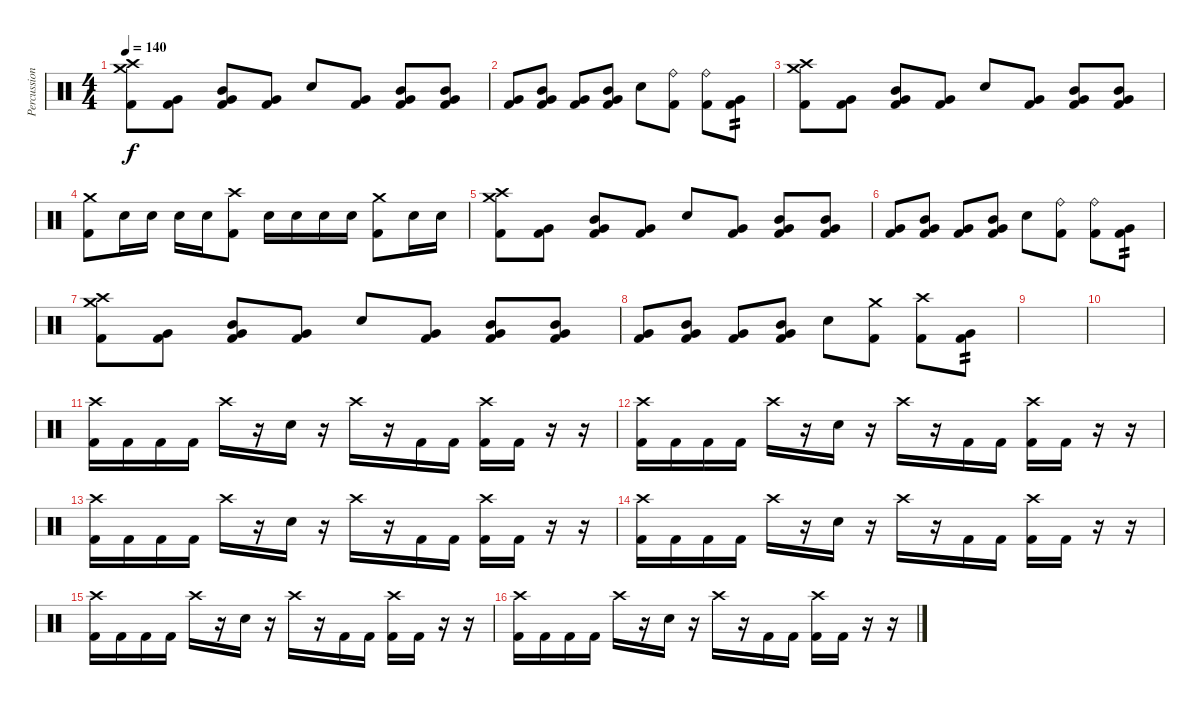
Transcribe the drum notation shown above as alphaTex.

\track ("Percussion" "Percussion") {instrument percussion}
\staff {score}
\articulation defaults
\ts (4 4)
\tempo 140
\clef neutral
\ks c
("Crash high (hit)" "Crash medium (hit)" "Kick (hit) 2").8{dy f} ("Very Low Tom (hit)" "Kick (hit) 2").8 ("Mid Tom (hit)" "Very Low Tom (hit)" "Kick (hit) 2").8 ("Very Low Tom (hit)" "Kick (hit) 2").8 "Electric Snare (hit)".8 ("Very Low Tom (hit)" "Kick (hit) 2").8 ("Mid Tom (hit)" "Very Low Tom (hit)" "Kick (hit) 2").8 ("Mid Tom (hit)" "Very Low Tom (hit)" "Kick (hit) 2").8 |
("Very Low Tom (hit)" "Kick (hit) 2").8 ("Mid Tom (hit)" "Very Low Tom (hit)" "Kick (hit) 2").8 ("Very Low Tom (hit)" "Kick (hit) 2").8 ("Mid Tom (hit)" "Very Low Tom (hit)" "Kick (hit) 2").8 "Electric Snare (hit)".8 ("Ride (bell)" "Kick (hit) 2").8 ("Ride (bell)" "Kick (hit) 2").8 ("Very Low Tom (hit)" "Kick (hit) 2").8{tp 2} |
("Crash high (hit)" "Crash medium (hit)" "Kick (hit) 2").8 ("Very Low Tom (hit)" "Kick (hit) 2").8 ("Mid Tom (hit)" "Very Low Tom (hit)" "Kick (hit) 2").8 ("Very Low Tom (hit)" "Kick (hit) 2").8 "Electric Snare (hit)".8 ("Very Low Tom (hit)" "Kick (hit) 2").8 ("Mid Tom (hit)" "Very Low Tom (hit)" "Kick (hit) 2").8 ("Mid Tom (hit)" "Very Low Tom (hit)" "Kick (hit) 2").8 |
("Crash medium (hit)" "Kick (hit) 2").8 "Electric Snare (hit)".16 "Electric Snare (hit)".16 "Electric Snare (hit)".16 "Electric Snare (hit)".16 ("Crash high (hit)" "Kick (hit) 2").8 "Electric Snare (hit)".16 "Electric Snare (hit)".16 "Electric Snare (hit)".16 "Electric Snare (hit)".16 ("Crash medium (hit)" "Kick (hit) 2").8 "Electric Snare (hit)".16 "Electric Snare (hit)".16 |
("Crash high (hit)" "Crash medium (hit)" "Kick (hit) 2").8 ("Very Low Tom (hit)" "Kick (hit) 2").8 ("Mid Tom (hit)" "Very Low Tom (hit)" "Kick (hit) 2").8 ("Very Low Tom (hit)" "Kick (hit) 2").8 "Electric Snare (hit)".8 ("Very Low Tom (hit)" "Kick (hit) 2").8 ("Mid Tom (hit)" "Very Low Tom (hit)" "Kick (hit) 2").8 ("Mid Tom (hit)" "Very Low Tom (hit)" "Kick (hit) 2").8 |
("Very Low Tom (hit)" "Kick (hit) 2").8 ("Mid Tom (hit)" "Very Low Tom (hit)" "Kick (hit) 2").8 ("Very Low Tom (hit)" "Kick (hit) 2").8 ("Mid Tom (hit)" "Very Low Tom (hit)" "Kick (hit) 2").8 "Electric Snare (hit)".8 ("Ride (bell)" "Kick (hit) 2").8 ("Ride (bell)" "Kick (hit) 2").8 ("Very Low Tom (hit)" "Kick (hit) 2").8{tp 2} |
("Crash high (hit)" "Crash medium (hit)" "Kick (hit) 2").8 ("Very Low Tom (hit)" "Kick (hit) 2").8 ("Mid Tom (hit)" "Very Low Tom (hit)" "Kick (hit) 2").8 ("Very Low Tom (hit)" "Kick (hit) 2").8 "Electric Snare (hit)".8 ("Very Low Tom (hit)" "Kick (hit) 2").8 ("Mid Tom (hit)" "Very Low Tom (hit)" "Kick (hit) 2").8 ("Mid Tom (hit)" "Very Low Tom (hit)" "Kick (hit) 2").8 |
("Very Low Tom (hit)" "Kick (hit) 2").8 ("Mid Tom (hit)" "Very Low Tom (hit)" "Kick (hit) 2").8 ("Very Low Tom (hit)" "Kick (hit) 2").8 ("Mid Tom (hit)" "Very Low Tom (hit)" "Kick (hit) 2").8 "Electric Snare (hit)".8 ("Crash medium (hit)" "Kick (hit) 2").8 ("Crash high (hit)" "Kick (hit) 2").8 ("Very Low Tom (hit)" "Kick (hit) 2").8{tp 2} |
|
|
("Crash high (hit)" "Kick (hit) 2").16 "Kick (hit) 2".16 "Kick (hit) 2".16 "Kick (hit) 2".16 "Crash high (hit)".16 r.16 "Electric Snare (hit)".16 r.16 "Crash high (hit)".16 r.16 "Kick (hit) 2".16 "Kick (hit) 2".16 ("Crash high (hit)" "Kick (hit) 2").16 "Kick (hit) 2".16 r.16 r.16 |
("Crash high (hit)" "Kick (hit) 2").16 "Kick (hit) 2".16 "Kick (hit) 2".16 "Kick (hit) 2".16 "Crash high (hit)".16 r.16 "Electric Snare (hit)".16 r.16 "Crash high (hit)".16 r.16 "Kick (hit) 2".16 "Kick (hit) 2".16 ("Crash high (hit)" "Kick (hit) 2").16 "Kick (hit) 2".16 r.16 r.16 |
("Crash high (hit)" "Kick (hit) 2").16 "Kick (hit) 2".16 "Kick (hit) 2".16 "Kick (hit) 2".16 "Crash high (hit)".16 r.16 "Electric Snare (hit)".16 r.16 "Crash high (hit)".16 r.16 "Kick (hit) 2".16 "Kick (hit) 2".16 ("Crash high (hit)" "Kick (hit) 2").16 "Kick (hit) 2".16 r.16 r.16 |
("Crash high (hit)" "Kick (hit) 2").16 "Kick (hit) 2".16 "Kick (hit) 2".16 "Kick (hit) 2".16 "Crash high (hit)".16 r.16 "Electric Snare (hit)".16 r.16 "Crash high (hit)".16 r.16 "Kick (hit) 2".16 "Kick (hit) 2".16 ("Crash high (hit)" "Kick (hit) 2").16 "Kick (hit) 2".16 r.16 r.16 |
("Crash high (hit)" "Kick (hit) 2").16 "Kick (hit) 2".16 "Kick (hit) 2".16 "Kick (hit) 2".16 "Crash high (hit)".16 r.16 "Electric Snare (hit)".16 r.16 "Crash high (hit)".16 r.16 "Kick (hit) 2".16 "Kick (hit) 2".16 ("Crash high (hit)" "Kick (hit) 2").16 "Kick (hit) 2".16 r.16 r.16 |
("Crash high (hit)" "Kick (hit) 2").16 "Kick (hit) 2".16 "Kick (hit) 2".16 "Kick (hit) 2".16 "Crash high (hit)".16 r.16 "Electric Snare (hit)".16 r.16 "Crash high (hit)".16 r.16 "Kick (hit) 2".16 "Kick (hit) 2".16 ("Crash high (hit)" "Kick (hit) 2").16 "Kick (hit) 2".16 r.16 r.16
